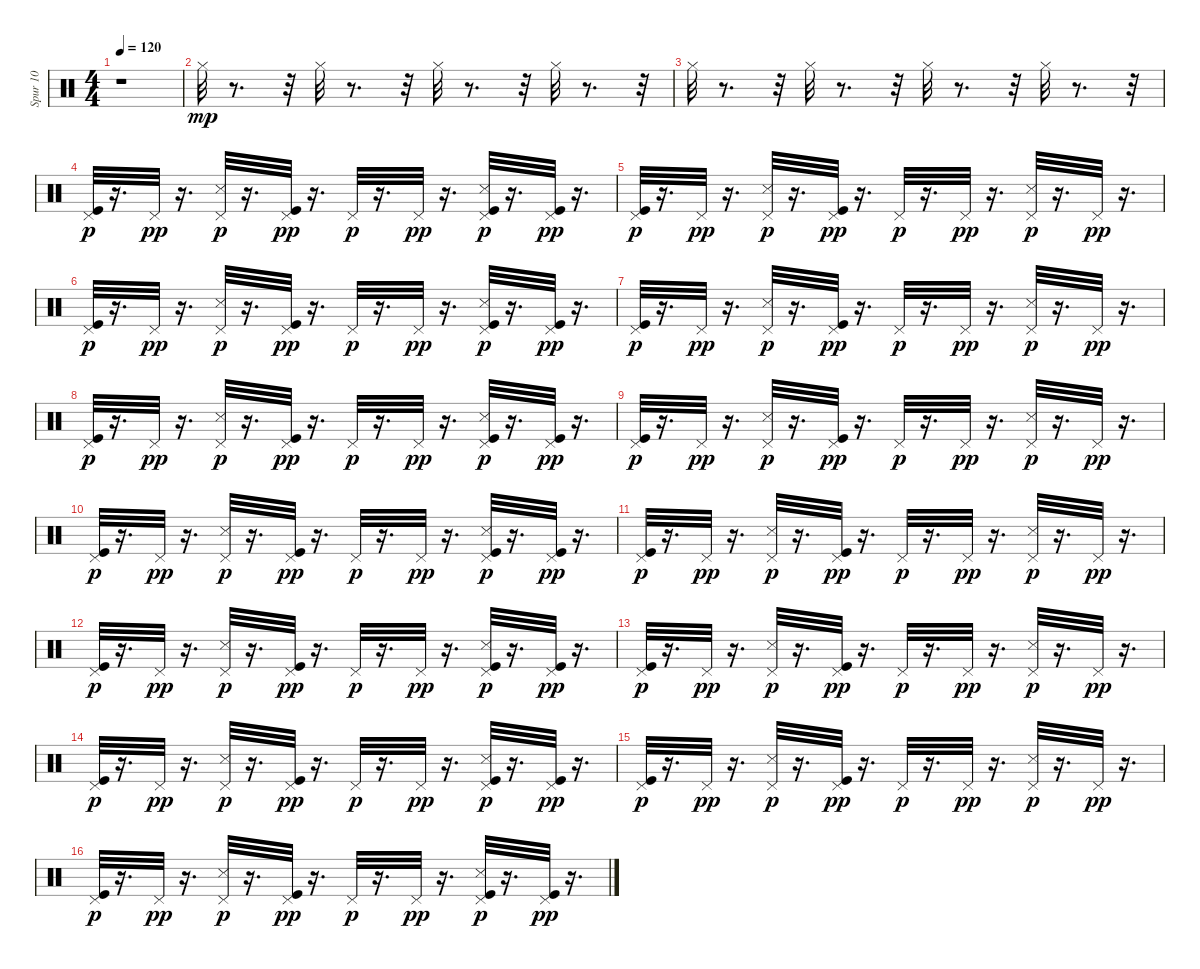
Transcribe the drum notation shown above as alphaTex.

\track ("Spur 10" "Spur 10") {instrument percussion}
\staff {score}
\articulation defaults
\ts (4 4)
\tempo 120
\clef neutral
\ks c
r.1{dy mp} |
"Hi-Hat (closed)".32 r.8{d} r.32 "Hi-Hat (closed)".32 r.8{d} r.32 "Hi-Hat (closed)".32 r.8{d} r.32 "Hi-Hat (closed)".32 r.8{d} r.32 |
"Hi-Hat (closed)".32 r.8{d} r.32 "Hi-Hat (closed)".32 r.8{d} r.32 "Hi-Hat (closed)".32 r.8{d} r.32 "Hi-Hat (closed)".32 r.8{d} r.32 |
("Kick (hit)" "Pedal Hi-Hat (hit)").32{dy p} r.16{d} "Pedal Hi-Hat (hit)".32{dy pp} r.16{d} ("Snare (side stick) 3" "Pedal Hi-Hat (hit)").32{dy p} r.16{d} ("Kick (hit)" "Pedal Hi-Hat (hit)").32{dy pp} r.16{d} "Pedal Hi-Hat (hit)".32{dy p} r.16{d} "Pedal Hi-Hat (hit)".32{dy pp} r.16{d} ("Kick (hit)" "Snare (side stick) 3" "Pedal Hi-Hat (hit)").32{dy p} r.16{d} ("Kick (hit)" "Pedal Hi-Hat (hit)").32{dy pp} r.16{d} |
("Kick (hit)" "Pedal Hi-Hat (hit)").32{dy p} r.16{d} "Pedal Hi-Hat (hit)".32{dy pp} r.16{d} ("Snare (side stick) 3" "Pedal Hi-Hat (hit)").32{dy p} r.16{d} ("Kick (hit)" "Pedal Hi-Hat (hit)").32{dy pp} r.16{d} "Pedal Hi-Hat (hit)".32{dy p} r.16{d} "Pedal Hi-Hat (hit)".32{dy pp} r.16{d} ("Snare (side stick) 3" "Pedal Hi-Hat (hit)").32{dy p} r.16{d} "Pedal Hi-Hat (hit)".32{dy pp} r.16{d} |
("Kick (hit)" "Pedal Hi-Hat (hit)").32{dy p} r.16{d} "Pedal Hi-Hat (hit)".32{dy pp} r.16{d} ("Snare (side stick) 3" "Pedal Hi-Hat (hit)").32{dy p} r.16{d} ("Kick (hit)" "Pedal Hi-Hat (hit)").32{dy pp} r.16{d} "Pedal Hi-Hat (hit)".32{dy p} r.16{d} "Pedal Hi-Hat (hit)".32{dy pp} r.16{d} ("Kick (hit)" "Snare (side stick) 3" "Pedal Hi-Hat (hit)").32{dy p} r.16{d} ("Kick (hit)" "Pedal Hi-Hat (hit)").32{dy pp} r.16{d} |
("Kick (hit)" "Pedal Hi-Hat (hit)").32{dy p} r.16{d} "Pedal Hi-Hat (hit)".32{dy pp} r.16{d} ("Snare (side stick) 3" "Pedal Hi-Hat (hit)").32{dy p} r.16{d} ("Kick (hit)" "Pedal Hi-Hat (hit)").32{dy pp} r.16{d} "Pedal Hi-Hat (hit)".32{dy p} r.16{d} "Pedal Hi-Hat (hit)".32{dy pp} r.16{d} ("Snare (side stick) 3" "Pedal Hi-Hat (hit)").32{dy p} r.16{d} "Pedal Hi-Hat (hit)".32{dy pp} r.16{d} |
("Kick (hit)" "Pedal Hi-Hat (hit)").32{dy p} r.16{d} "Pedal Hi-Hat (hit)".32{dy pp} r.16{d} ("Snare (side stick) 3" "Pedal Hi-Hat (hit)").32{dy p} r.16{d} ("Kick (hit)" "Pedal Hi-Hat (hit)").32{dy pp} r.16{d} "Pedal Hi-Hat (hit)".32{dy p} r.16{d} "Pedal Hi-Hat (hit)".32{dy pp} r.16{d} ("Kick (hit)" "Snare (side stick) 3" "Pedal Hi-Hat (hit)").32{dy p} r.16{d} ("Kick (hit)" "Pedal Hi-Hat (hit)").32{dy pp} r.16{d} |
("Kick (hit)" "Pedal Hi-Hat (hit)").32{dy p} r.16{d} "Pedal Hi-Hat (hit)".32{dy pp} r.16{d} ("Snare (side stick) 3" "Pedal Hi-Hat (hit)").32{dy p} r.16{d} ("Kick (hit)" "Pedal Hi-Hat (hit)").32{dy pp} r.16{d} "Pedal Hi-Hat (hit)".32{dy p} r.16{d} "Pedal Hi-Hat (hit)".32{dy pp} r.16{d} ("Snare (side stick) 3" "Pedal Hi-Hat (hit)").32{dy p} r.16{d} "Pedal Hi-Hat (hit)".32{dy pp} r.16{d} |
("Kick (hit)" "Pedal Hi-Hat (hit)").32{dy p} r.16{d} "Pedal Hi-Hat (hit)".32{dy pp} r.16{d} ("Snare (side stick) 3" "Pedal Hi-Hat (hit)").32{dy p} r.16{d} ("Kick (hit)" "Pedal Hi-Hat (hit)").32{dy pp} r.16{d} "Pedal Hi-Hat (hit)".32{dy p} r.16{d} "Pedal Hi-Hat (hit)".32{dy pp} r.16{d} ("Kick (hit)" "Snare (side stick) 3" "Pedal Hi-Hat (hit)").32{dy p} r.16{d} ("Kick (hit)" "Pedal Hi-Hat (hit)").32{dy pp} r.16{d} |
("Kick (hit)" "Pedal Hi-Hat (hit)").32{dy p} r.16{d} "Pedal Hi-Hat (hit)".32{dy pp} r.16{d} ("Snare (side stick) 3" "Pedal Hi-Hat (hit)").32{dy p} r.16{d} ("Kick (hit)" "Pedal Hi-Hat (hit)").32{dy pp} r.16{d} "Pedal Hi-Hat (hit)".32{dy p} r.16{d} "Pedal Hi-Hat (hit)".32{dy pp} r.16{d} ("Snare (side stick) 3" "Pedal Hi-Hat (hit)").32{dy p} r.16{d} "Pedal Hi-Hat (hit)".32{dy pp} r.16{d} |
("Kick (hit)" "Pedal Hi-Hat (hit)").32{dy p} r.16{d} "Pedal Hi-Hat (hit)".32{dy pp} r.16{d} ("Snare (side stick) 3" "Pedal Hi-Hat (hit)").32{dy p} r.16{d} ("Kick (hit)" "Pedal Hi-Hat (hit)").32{dy pp} r.16{d} "Pedal Hi-Hat (hit)".32{dy p} r.16{d} "Pedal Hi-Hat (hit)".32{dy pp} r.16{d} ("Kick (hit)" "Snare (side stick) 3" "Pedal Hi-Hat (hit)").32{dy p} r.16{d} ("Kick (hit)" "Pedal Hi-Hat (hit)").32{dy pp} r.16{d} |
("Kick (hit)" "Pedal Hi-Hat (hit)").32{dy p} r.16{d} "Pedal Hi-Hat (hit)".32{dy pp} r.16{d} ("Snare (side stick) 3" "Pedal Hi-Hat (hit)").32{dy p} r.16{d} ("Kick (hit)" "Pedal Hi-Hat (hit)").32{dy pp} r.16{d} "Pedal Hi-Hat (hit)".32{dy p} r.16{d} "Pedal Hi-Hat (hit)".32{dy pp} r.16{d} ("Snare (side stick) 3" "Pedal Hi-Hat (hit)").32{dy p} r.16{d} "Pedal Hi-Hat (hit)".32{dy pp} r.16{d} |
("Kick (hit)" "Pedal Hi-Hat (hit)").32{dy p} r.16{d} "Pedal Hi-Hat (hit)".32{dy pp} r.16{d} ("Snare (side stick) 3" "Pedal Hi-Hat (hit)").32{dy p} r.16{d} ("Kick (hit)" "Pedal Hi-Hat (hit)").32{dy pp} r.16{d} "Pedal Hi-Hat (hit)".32{dy p} r.16{d} "Pedal Hi-Hat (hit)".32{dy pp} r.16{d} ("Kick (hit)" "Snare (side stick) 3" "Pedal Hi-Hat (hit)").32{dy p} r.16{d} ("Kick (hit)" "Pedal Hi-Hat (hit)").32{dy pp} r.16{d} |
("Kick (hit)" "Pedal Hi-Hat (hit)").32{dy p} r.16{d} "Pedal Hi-Hat (hit)".32{dy pp} r.16{d} ("Snare (side stick) 3" "Pedal Hi-Hat (hit)").32{dy p} r.16{d} ("Kick (hit)" "Pedal Hi-Hat (hit)").32{dy pp} r.16{d} "Pedal Hi-Hat (hit)".32{dy p} r.16{d} "Pedal Hi-Hat (hit)".32{dy pp} r.16{d} ("Snare (side stick) 3" "Pedal Hi-Hat (hit)").32{dy p} r.16{d} "Pedal Hi-Hat (hit)".32{dy pp} r.16{d} |
("Kick (hit)" "Pedal Hi-Hat (hit)").32{dy p} r.16{d} "Pedal Hi-Hat (hit)".32{dy pp} r.16{d} ("Snare (side stick) 3" "Pedal Hi-Hat (hit)").32{dy p} r.16{d} ("Kick (hit)" "Pedal Hi-Hat (hit)").32{dy pp} r.16{d} "Pedal Hi-Hat (hit)".32{dy p} r.16{d} "Pedal Hi-Hat (hit)".32{dy pp} r.16{d} ("Kick (hit)" "Snare (side stick) 3" "Pedal Hi-Hat (hit)").32{dy p} r.16{d} ("Kick (hit)" "Pedal Hi-Hat (hit)").32{dy pp} r.16{d}
